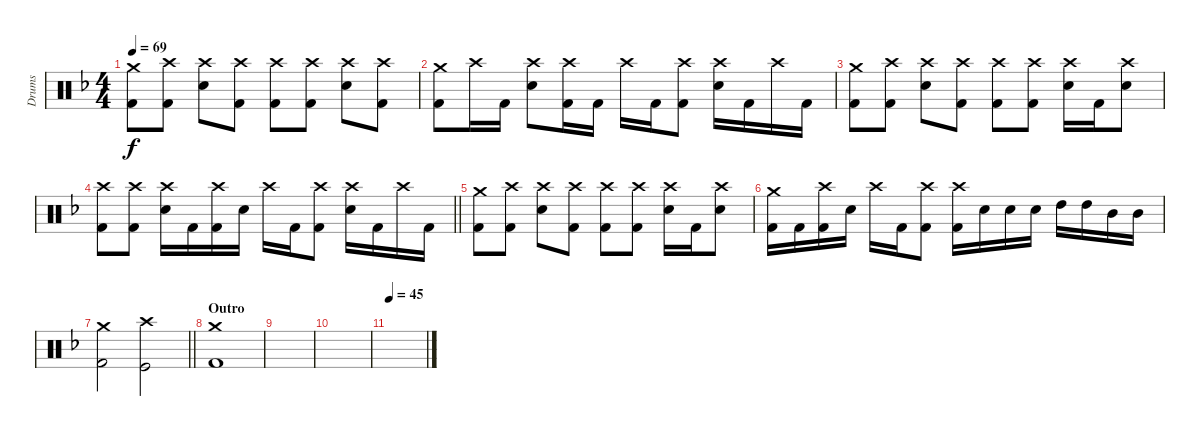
\track ("Drums" "Drums") {instrument percussion}
\staff {score}
\articulation defaults
\ts (4 4)
\tempo 69
\clef neutral
\ks dminor
("Crash medium (hit)" "Kick (hit) 2").8{dy f} ("Crash high (hit)" "Kick (hit) 2").8 ("Crash high (hit)" "Snare (hit) 2").8 ("Crash high (hit)" "Kick (hit) 2").8 ("Crash high (hit)" "Kick (hit) 2").8 ("Crash high (hit)" "Kick (hit) 2").8 ("Crash high (hit)" "Snare (hit) 2").8 ("Crash high (hit)" "Kick (hit) 2").8 |
("Crash medium (hit)" "Kick (hit) 2").8 "Crash high (hit)".16 "Kick (hit) 2".16 ("Crash high (hit)" "Snare (hit) 2").8 ("Crash high (hit)" "Kick (hit) 2").16 "Kick (hit) 2".16 "Crash high (hit)".16 "Kick (hit) 2".16 ("Crash high (hit)" "Kick (hit) 2").8 ("Crash high (hit)" "Snare (hit) 2").16 "Kick (hit) 2".16 "Crash high (hit)".16 "Kick (hit) 2".16 |
("Crash medium (hit)" "Kick (hit) 2").8 ("Crash high (hit)" "Kick (hit) 2").8 ("Crash high (hit)" "Snare (hit) 2").8 ("Crash high (hit)" "Kick (hit) 2").8 ("Crash high (hit)" "Kick (hit) 2").8 ("Crash high (hit)" "Kick (hit) 2").8 ("Crash high (hit)" "Snare (hit) 2").16 "Kick (hit) 2".16 ("Crash high (hit)" "Snare (hit) 2").8 |
\barLineRight lightlight
("Crash high (hit)" "Kick (hit) 2").8 ("Crash high (hit)" "Kick (hit) 2").8 ("Crash high (hit)" "Snare (hit) 2").16 "Kick (hit) 2".16 ("Crash high (hit)" "Kick (hit) 2").16 "Snare (hit) 2".16 "Crash high (hit)".16 "Kick (hit) 2".16 ("Crash high (hit)" "Kick (hit) 2").8 ("Crash high (hit)" "Snare (hit) 2").16 "Kick (hit) 2".16 "Crash high (hit)".16 "Kick (hit) 2".16 |
("Crash medium (hit)" "Kick (hit) 2").8 ("Crash high (hit)" "Kick (hit) 2").8 ("Crash high (hit)" "Snare (hit) 2").8 ("Crash high (hit)" "Kick (hit) 2").8 ("Crash high (hit)" "Kick (hit) 2").8 ("Crash high (hit)" "Kick (hit) 2").8 ("Crash high (hit)" "Snare (hit) 2").16 "Kick (hit) 2".16 ("Crash high (hit)" "Snare (hit) 2").8 |
("Crash medium (hit)" "Kick (hit) 2").16 "Kick (hit) 2".16 ("Crash high (hit)" "Kick (hit) 2").16 "Snare (hit) 2".16 "Crash high (hit)".16 "Kick (hit) 2".16 ("Crash high (hit)" "Kick (hit) 2").8 ("Crash high (hit)" "Kick (hit) 2").16 "Snare (hit) 2".16 "Snare (hit) 2".16 "Snare (hit) 2".16 "High Tom (hit)".16 "High Tom (hit)".16 "Mid Tom (hit)".16 "Mid Tom (hit)".16 |
\barLineRight lightlight
("Crash medium (hit)" "Kick (hit) 2").2 ("Crash high (hit)" "Kick (hit)").2 |
\section ("" "Outro")
("Crash medium (hit)" "Kick (hit) 2").1 |
|
|
\tempo 45
